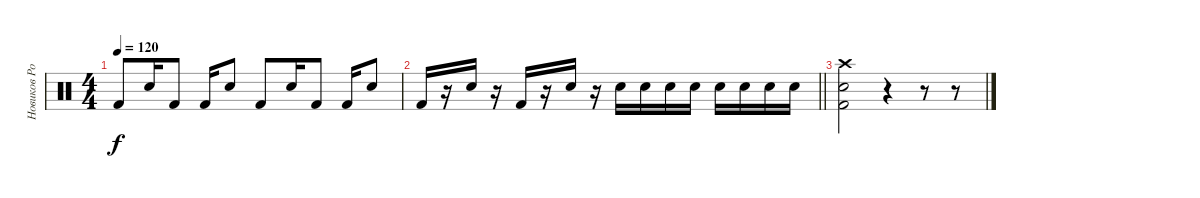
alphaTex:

\track ("Новиков Роман ( Ударные )" "Новиков Ро") {instrument percussion}
\staff {score}
\articulation defaults
\ts (4 4)
\tempo 120
\clef neutral
\ks c "Kick (hit) 2".8{dy f} "Electric Snare (hit)".16 "Kick (hit) 2".8 "Kick (hit) 2".16 "Electric Snare (hit)".8 "Kick (hit) 2".8 "Electric Snare (hit)".16 "Kick (hit) 2".8 "Kick (hit) 2".16 "Electric Snare (hit)".8
|
\barLineRight lightlight "Kick (hit) 2".16
r.16 "Electric Snare (hit)".16 r.16 "Kick (hit) 2".16 r.16 "Electric Snare (hit)".16 r.16 "Snare (hit) 2".16 "Snare (hit) 2".16 "Snare (hit) 2".16 "Snare (hit) 2".16 "Snare (hit) 2".16 "Snare (hit) 2".16 "Snare (hit) 2".16 "Snare (hit) 2".16 |
("Crash high (hit)" "Kick (hit) 2" "Snare (hit) 2").2 r.4 r.8 r.8
